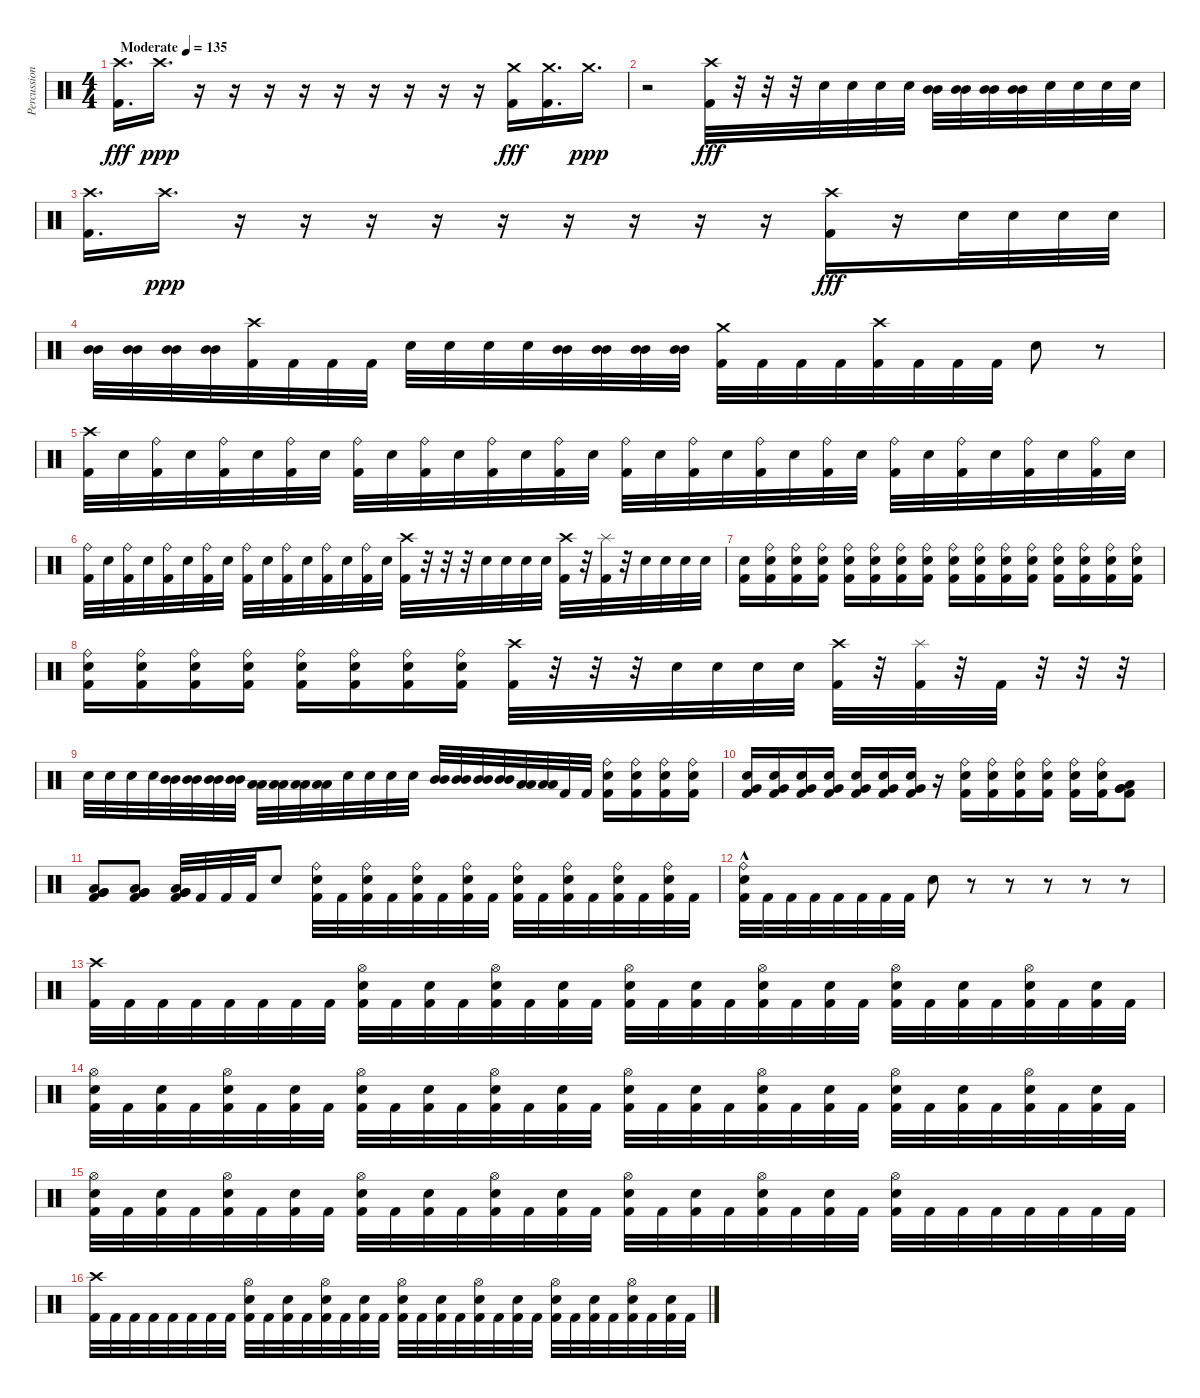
\track ("Percussion" "Percussion") {instrument percussion bank 16}
\staff {score}
\articulation defaults
\ts (4 4)
\tempo (135 "Moderate")
\clef neutral
\ks c
("Crash high (hit)" "Kick (hit) 2").16{d dy fff} "Crash high (hit)".16{d dy ppp} r.16 r.16 r.16 r.16 r.16 r.16 r.16 r.16 r.16 ("Crash medium (hit)" "Kick (hit) 2").16{dy fff} ("Crash medium (hit)" "Kick (hit) 2").16{d} "Crash medium (hit)".16{d dy ppp} |
r.2 ("Crash high (hit)" "Kick (hit) 2").32{dy fff} r.32 r.32 r.32 "Electric Snare (hit)".32 "Electric Snare (hit)".32 "Electric Snare (hit)".32 "Electric Snare (hit)".32 ("Mid Tom (hit)" "Mid Tom (hit)").32 ("Mid Tom (hit)" "Mid Tom (hit)").32 ("Mid Tom (hit)" "Mid Tom (hit)").32 ("Mid Tom (hit)" "Mid Tom (hit)").32 "Electric Snare (hit)".32 "Electric Snare (hit)".32 "Electric Snare (hit)".32 "Electric Snare (hit)".32 |
("Crash high (hit)" "Kick (hit) 2").16{d} "Crash high (hit)".16{d dy ppp} r.16 r.16 r.16 r.16 r.16 r.16 r.16 r.16 r.16 ("Crash high (hit)" "Kick (hit) 2").16{dy fff} r.16 "Electric Snare (hit)".32 "Electric Snare (hit)".32 "Electric Snare (hit)".32 "Electric Snare (hit)".32 |
("Mid Tom (hit)" "Mid Tom (hit)").32 ("Mid Tom (hit)" "Mid Tom (hit)").32 ("Mid Tom (hit)" "Mid Tom (hit)").32 ("Mid Tom (hit)" "Mid Tom (hit)").32 ("Crash high (hit)" "Kick (hit) 2").32 "Kick (hit) 2".32 "Kick (hit) 2".32 "Kick (hit) 2".32 "Electric Snare (hit)".32 "Electric Snare (hit)".32 "Electric Snare (hit)".32 "Electric Snare (hit)".32 ("Mid Tom (hit)" "Mid Tom (hit)").32 ("Mid Tom (hit)" "Mid Tom (hit)").32 ("Mid Tom (hit)" "Mid Tom (hit)").32 ("Mid Tom (hit)" "Mid Tom (hit)").32 ("Crash medium (hit)" "Kick (hit) 2").32 "Kick (hit) 2".32 "Kick (hit) 2".32 "Kick (hit) 2".32 ("Crash high (hit)" "Kick (hit) 2").32 "Kick (hit) 2".32 "Kick (hit) 2".32 "Kick (hit) 2".32 "Electric Snare (hit)".8 r.8 |
("Crash high (hit)" "Kick (hit) 2").32 "Electric Snare (hit)".32 ("Ride (bell)" "Kick (hit) 2").32 "Electric Snare (hit)".32 ("Ride (bell)" "Kick (hit) 2").32 "Electric Snare (hit)".32 ("Ride (bell)" "Kick (hit) 2").32 "Electric Snare (hit)".32 ("Ride (bell)" "Kick (hit) 2").32 "Electric Snare (hit)".32 ("Ride (bell)" "Kick (hit) 2").32 "Electric Snare (hit)".32 ("Ride (bell)" "Kick (hit) 2").32 "Electric Snare (hit)".32 ("Ride (bell)" "Kick (hit) 2").32 "Electric Snare (hit)".32 ("Ride (bell)" "Kick (hit) 2").32 "Electric Snare (hit)".32 ("Ride (bell)" "Kick (hit) 2").32 "Electric Snare (hit)".32 ("Ride (bell)" "Kick (hit) 2").32 "Electric Snare (hit)".32 ("Ride (bell)" "Kick (hit) 2").32 "Electric Snare (hit)".32 ("Ride (bell)" "Kick (hit) 2").32 "Electric Snare (hit)".32 ("Ride (bell)" "Kick (hit) 2").32 "Electric Snare (hit)".32 ("Ride (bell)" "Kick (hit) 2").32 "Electric Snare (hit)".32 ("Ride (bell)" "Kick (hit) 2").32 "Electric Snare (hit)".32 |
("Ride (bell)" "Kick (hit) 2").32 "Electric Snare (hit)".32 ("Ride (bell)" "Kick (hit) 2").32 "Electric Snare (hit)".32 ("Ride (bell)" "Kick (hit) 2").32 "Electric Snare (hit)".32 ("Ride (bell)" "Kick (hit) 2").32 "Electric Snare (hit)".32 ("Ride (bell)" "Kick (hit) 2").32 "Electric Snare (hit)".32 ("Ride (bell)" "Kick (hit) 2").32 "Electric Snare (hit)".32 ("Ride (bell)" "Kick (hit) 2").32 "Electric Snare (hit)".32 ("Ride (bell)" "Kick (hit) 2").32 "Electric Snare (hit)".32 ("Crash high (hit)" "Kick (hit) 2").32 r.32 r.32 r.32 "Electric Snare (hit)".32 "Electric Snare (hit)".32 "Electric Snare (hit)".32 "Electric Snare (hit)".32 ("Crash high (hit)" "Kick (hit) 2").32 r.32 ("Splash (hit)" "Kick (hit) 2").32 r.32 "Electric Snare (hit)".32 "Electric Snare (hit)".32 "Electric Snare (hit)".32 "Electric Snare (hit)".32 |
("Electric Snare (hit)" "Kick (hit) 2").16 ("Ride (bell)" "Electric Snare (hit)" "Kick (hit) 2").16 ("Ride (bell)" "Electric Snare (hit)" "Kick (hit) 2").16 ("Ride (bell)" "Electric Snare (hit)" "Kick (hit) 2").16 ("Ride (bell)" "Electric Snare (hit)" "Kick (hit) 2").16 ("Ride (bell)" "Electric Snare (hit)" "Kick (hit) 2").16 ("Ride (bell)" "Electric Snare (hit)" "Kick (hit) 2").16 ("Ride (bell)" "Electric Snare (hit)" "Kick (hit) 2").16 ("Ride (bell)" "Electric Snare (hit)" "Kick (hit) 2").16 ("Ride (bell)" "Electric Snare (hit)" "Kick (hit) 2").16 ("Ride (bell)" "Electric Snare (hit)" "Kick (hit) 2").16 ("Ride (bell)" "Electric Snare (hit)" "Kick (hit) 2").16 ("Ride (bell)" "Electric Snare (hit)" "Kick (hit) 2").16 ("Ride (bell)" "Electric Snare (hit)" "Kick (hit) 2").16 ("Ride (bell)" "Electric Snare (hit)" "Kick (hit) 2").16 ("Ride (bell)" "Electric Snare (hit)" "Kick (hit) 2").16 |
("Ride (bell)" "Electric Snare (hit)" "Kick (hit) 2").16 ("Ride (bell)" "Electric Snare (hit)" "Kick (hit) 2").16 ("Ride (bell)" "Electric Snare (hit)" "Kick (hit) 2").16 ("Ride (bell)" "Electric Snare (hit)" "Kick (hit) 2").16 ("Ride (bell)" "Electric Snare (hit)" "Kick (hit) 2").16 ("Ride (bell)" "Electric Snare (hit)" "Kick (hit) 2").16 ("Ride (bell)" "Electric Snare (hit)" "Kick (hit) 2").16 ("Ride (bell)" "Electric Snare (hit)" "Kick (hit) 2").16 ("Crash high (hit)" "Kick (hit) 2").32 r.32 r.32 r.32 "Electric Snare (hit)".32 "Electric Snare (hit)".32 "Electric Snare (hit)".32 "Electric Snare (hit)".32 ("Crash high (hit)" "Kick (hit) 2").32 r.32 ("Splash (hit)" "Kick (hit) 2").32 r.32 "Kick (hit) 2".32 r.32 r.32 r.32 |
"Electric Snare (hit)".32 "Electric Snare (hit)".32 "Electric Snare (hit)".32 "Electric Snare (hit)".32 ("Mid Tom (hit)" "Mid Tom (hit)").32 ("Mid Tom (hit)" "Mid Tom (hit)").32 ("Mid Tom (hit)" "Mid Tom (hit)").32 ("Mid Tom (hit)" "Mid Tom (hit)").32 ("Low Tom (hit)" "Low Tom (hit)").32 ("Low Tom (hit)" "Low Tom (hit)").32 ("Low Tom (hit)" "Low Tom (hit)").32 ("Low Tom (hit)" "Low Tom (hit)").32 "Electric Snare (hit)".32 "Electric Snare (hit)".32 "Electric Snare (hit)".32 "Electric Snare (hit)".32 ("Mid Tom (hit)" "Mid Tom (hit)").32 ("Mid Tom (hit)" "Mid Tom (hit)").32 ("Mid Tom (hit)" "Mid Tom (hit)").32 ("Mid Tom (hit)" "Mid Tom (hit)").32 ("Low Tom (hit)" "Low Tom (hit)").32 ("Low Tom (hit)" "Low Tom (hit)").32 "Kick (hit) 2".32 "Kick (hit) 2".32 ("Ride (bell)" "Electric Snare (hit)" "Kick (hit) 2").16 ("Ride (bell)" "Electric Snare (hit)" "Kick (hit) 2").16 ("Ride (bell)" "Electric Snare (hit)" "Kick (hit) 2").16 ("Ride (bell)" "Electric Snare (hit)" "Kick (hit) 2").16 |
("Electric Snare (hit)" "Very Low Tom (hit)" "Kick (hit) 2").16 ("Electric Snare (hit)" "Very Low Tom (hit)" "Kick (hit) 2").16 ("Electric Snare (hit)" "Very Low Tom (hit)" "Kick (hit) 2").16 ("Electric Snare (hit)" "Very Low Tom (hit)" "Kick (hit) 2").16 ("Electric Snare (hit)" "Very Low Tom (hit)" "Kick (hit) 2").16 ("Electric Snare (hit)" "Very Low Tom (hit)" "Kick (hit) 2").16 ("Electric Snare (hit)" "Very Low Tom (hit)" "Kick (hit) 2").16 r.16 ("Ride (bell)" "Electric Snare (hit)" "Kick (hit) 2").16 ("Ride (bell)" "Electric Snare (hit)" "Kick (hit) 2").16 ("Ride (bell)" "Electric Snare (hit)" "Kick (hit) 2").16 ("Ride (bell)" "Electric Snare (hit)" "Kick (hit) 2").16 ("Ride (bell)" "Electric Snare (hit)" "Kick (hit) 2").16 ("Ride (bell)" "Electric Snare (hit)" "Kick (hit) 2").16 ("Low Tom (hit)" "Very Low Tom (hit)" "Very Low Tom (hit)" "Kick (hit) 2").8 |
("Low Tom (hit)" "Very Low Tom (hit)" "Very Low Tom (hit)" "Kick (hit) 2").8 ("Low Tom (hit)" "Very Low Tom (hit)" "Very Low Tom (hit)" "Kick (hit) 2").8 ("Low Tom (hit)" "Very Low Tom (hit)" "Very Low Tom (hit)" "Kick (hit) 2").32 "Kick (hit) 2".32 "Kick (hit) 2".32 "Kick (hit) 2".32 "Electric Snare (hit)".8 ("Ride (bell)" "Electric Snare (hit)" "Kick (hit) 2").32 "Kick (hit) 2".32 ("Ride (bell)" "Electric Snare (hit)" "Kick (hit) 2").32 "Kick (hit) 2".32 ("Ride (bell)" "Electric Snare (hit)" "Kick (hit) 2").32 "Kick (hit) 2".32 ("Ride (bell)" "Electric Snare (hit)" "Kick (hit) 2").32 "Kick (hit) 2".32 ("Ride (bell)" "Electric Snare (hit)" "Kick (hit) 2").32 "Kick (hit) 2".32 ("Ride (bell)" "Electric Snare (hit)" "Kick (hit) 2").32 "Kick (hit) 2".32 ("Ride (bell)" "Electric Snare (hit)" "Kick (hit) 2").32 "Kick (hit) 2".32 ("Ride (bell)" "Electric Snare (hit)" "Kick (hit) 2").32 "Kick (hit) 2".32 |
("Ride (bell)"{hac} "Electric Snare (hit)" "Kick (hit) 2").32 "Kick (hit) 2".32 "Kick (hit) 2".32 "Kick (hit) 2".32 "Kick (hit) 2".32 "Kick (hit) 2".32 "Kick (hit) 2".32 "Kick (hit) 2".32 "Electric Snare (hit)".8 r.8 r.8 r.8 r.8 r.8 |
("Crash high (hit)" "Kick (hit) 2").32 "Kick (hit) 2".32 "Kick (hit) 2".32 "Kick (hit) 2".32 "Kick (hit) 2".32 "Kick (hit) 2".32 "Kick (hit) 2".32 "Kick (hit) 2".32 ("Hi-Hat (open)" "Electric Snare (hit)" "Kick (hit) 2").32 "Kick (hit) 2".32 ("Electric Snare (hit)" "Kick (hit) 2").32 "Kick (hit) 2".32 ("Hi-Hat (open)" "Electric Snare (hit)" "Kick (hit) 2").32 "Kick (hit) 2".32 ("Electric Snare (hit)" "Kick (hit) 2").32 "Kick (hit) 2".32 ("Hi-Hat (open)" "Electric Snare (hit)" "Kick (hit) 2").32 "Kick (hit) 2".32 ("Electric Snare (hit)" "Kick (hit) 2").32 "Kick (hit) 2".32 ("Hi-Hat (open)" "Electric Snare (hit)" "Kick (hit) 2").32 "Kick (hit) 2".32 ("Electric Snare (hit)" "Kick (hit) 2").32 "Kick (hit) 2".32 ("Hi-Hat (open)" "Electric Snare (hit)" "Kick (hit) 2").32 "Kick (hit) 2".32 ("Electric Snare (hit)" "Kick (hit) 2").32 "Kick (hit) 2".32 ("Hi-Hat (open)" "Electric Snare (hit)" "Kick (hit) 2").32 "Kick (hit) 2".32 ("Electric Snare (hit)" "Kick (hit) 2").32 "Kick (hit) 2".32 |
("Hi-Hat (open)" "Electric Snare (hit)" "Kick (hit) 2").32 "Kick (hit) 2".32 ("Electric Snare (hit)" "Kick (hit) 2").32 "Kick (hit) 2".32 ("Hi-Hat (open)" "Electric Snare (hit)" "Kick (hit) 2").32 "Kick (hit) 2".32 ("Electric Snare (hit)" "Kick (hit) 2").32 "Kick (hit) 2".32 ("Hi-Hat (open)" "Electric Snare (hit)" "Kick (hit) 2").32 "Kick (hit) 2".32 ("Electric Snare (hit)" "Kick (hit) 2").32 "Kick (hit) 2".32 ("Hi-Hat (open)" "Electric Snare (hit)" "Kick (hit) 2").32 "Kick (hit) 2".32 ("Electric Snare (hit)" "Kick (hit) 2").32 "Kick (hit) 2".32 ("Hi-Hat (open)" "Electric Snare (hit)" "Kick (hit) 2").32 "Kick (hit) 2".32 ("Electric Snare (hit)" "Kick (hit) 2").32 "Kick (hit) 2".32 ("Hi-Hat (open)" "Electric Snare (hit)" "Kick (hit) 2").32 "Kick (hit) 2".32 ("Electric Snare (hit)" "Kick (hit) 2").32 "Kick (hit) 2".32 ("Hi-Hat (open)" "Electric Snare (hit)" "Kick (hit) 2").32 "Kick (hit) 2".32 ("Electric Snare (hit)" "Kick (hit) 2").32 "Kick (hit) 2".32 ("Hi-Hat (open)" "Electric Snare (hit)" "Kick (hit) 2").32 "Kick (hit) 2".32 ("Electric Snare (hit)" "Kick (hit) 2").32 "Kick (hit) 2".32 |
("Hi-Hat (open)" "Electric Snare (hit)" "Kick (hit) 2").32 "Kick (hit) 2".32 ("Electric Snare (hit)" "Kick (hit) 2").32 "Kick (hit) 2".32 ("Hi-Hat (open)" "Electric Snare (hit)" "Kick (hit) 2").32 "Kick (hit) 2".32 ("Electric Snare (hit)" "Kick (hit) 2").32 "Kick (hit) 2".32 ("Hi-Hat (open)" "Electric Snare (hit)" "Kick (hit) 2").32 "Kick (hit) 2".32 ("Electric Snare (hit)" "Kick (hit) 2").32 "Kick (hit) 2".32 ("Hi-Hat (open)" "Electric Snare (hit)" "Kick (hit) 2").32 "Kick (hit) 2".32 ("Electric Snare (hit)" "Kick (hit) 2").32 "Kick (hit) 2".32 ("Hi-Hat (open)" "Electric Snare (hit)" "Kick (hit) 2").32 "Kick (hit) 2".32 ("Electric Snare (hit)" "Kick (hit) 2").32 "Kick (hit) 2".32 ("Hi-Hat (open)" "Electric Snare (hit)" "Kick (hit) 2").32 "Kick (hit) 2".32 ("Electric Snare (hit)" "Kick (hit) 2").32 "Kick (hit) 2".32 ("Hi-Hat (open)" "Electric Snare (hit)" "Kick (hit) 2").32 "Kick (hit) 2".32 "Kick (hit) 2".32 "Kick (hit) 2".32 "Kick (hit) 2".32 "Kick (hit) 2".32 "Kick (hit) 2".32 "Kick (hit) 2".32 |
("Crash high (hit)" "Kick (hit) 2").32 "Kick (hit) 2".32 "Kick (hit) 2".32 "Kick (hit) 2".32 "Kick (hit) 2".32 "Kick (hit) 2".32 "Kick (hit) 2".32 "Kick (hit) 2".32 ("Hi-Hat (open)" "Electric Snare (hit)" "Kick (hit) 2").32 "Kick (hit) 2".32 ("Electric Snare (hit)" "Kick (hit) 2").32 "Kick (hit) 2".32 ("Hi-Hat (open)" "Electric Snare (hit)" "Kick (hit) 2").32 "Kick (hit) 2".32 ("Electric Snare (hit)" "Kick (hit) 2").32 "Kick (hit) 2".32 ("Hi-Hat (open)" "Electric Snare (hit)" "Kick (hit) 2").32 "Kick (hit) 2".32 ("Electric Snare (hit)" "Kick (hit) 2").32 "Kick (hit) 2".32 ("Hi-Hat (open)" "Electric Snare (hit)" "Kick (hit) 2").32 "Kick (hit) 2".32 ("Electric Snare (hit)" "Kick (hit) 2").32 "Kick (hit) 2".32 ("Hi-Hat (open)" "Electric Snare (hit)" "Kick (hit) 2").32 "Kick (hit) 2".32 ("Electric Snare (hit)" "Kick (hit) 2").32 "Kick (hit) 2".32 ("Hi-Hat (open)" "Electric Snare (hit)" "Kick (hit) 2").32 "Kick (hit) 2".32 ("Electric Snare (hit)" "Kick (hit) 2").32 "Kick (hit) 2".32
